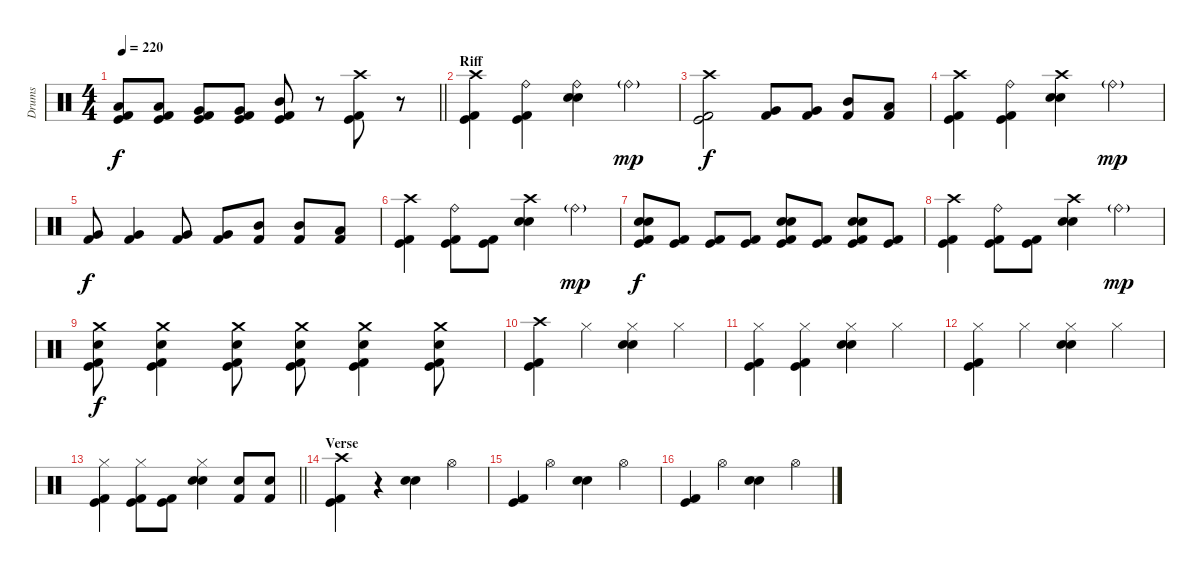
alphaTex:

\track ("Drums" "Drums") {instrument percussion}
\staff {score}
\articulation defaults
\ts (4 4)
\tempo 220
\clef neutral
\barLineRight lightlight
\ks c
("Low Tom (hit)" "Kick (hit)" "Kick (hit) 2").8{dy f} ("Low Tom (hit)" "Kick (hit)" "Kick (hit) 2").8 ("Very Low Tom (hit)" "Kick (hit)" "Kick (hit) 2").8 ("Very Low Tom (hit)" "Kick (hit)" "Kick (hit) 2").8 ("Mid Tom (hit)" "Kick (hit)" "Kick (hit) 2").8 r.8 ("Crash high (hit)" "Kick (hit)" "Kick (hit) 2").8 r.8 |
\section ("" "Riff")
("Crash high (hit)" "Kick (hit)" "Kick (hit) 2").4 ("Ride (bell)" "Kick (hit)" "Kick (hit) 2").4 ("Ride (bell)" "Electric Snare (hit)" "Snare (hit) 2").4 "Ride (bell)"{g}.4{dy mp} |
("Crash high (hit)" "Kick (hit)" "Kick (hit) 2").2{dy f} ("Very Low Tom (hit)" "Kick (hit) 2").8 ("Very Low Tom (hit)" "Kick (hit) 2").8 ("Mid Tom (hit)" "Kick (hit) 2").8 ("Low Tom (hit)" "Kick (hit) 2").8 |
("Crash high (hit)" "Kick (hit)" "Kick (hit) 2").4 ("Ride (bell)" "Kick (hit)" "Kick (hit) 2").4 ("Crash high (hit)" "Electric Snare (hit)" "Snare (hit) 2").4 "Ride (bell)"{g}.4{dy mp} |
("Very Low Tom (hit)" "Kick (hit) 2").8{dy f} ("Very Low Tom (hit)" "Kick (hit) 2").4 ("Very Low Tom (hit)" "Kick (hit) 2").8 ("Very Low Tom (hit)" "Kick (hit) 2").8 ("Mid Tom (hit)" "Kick (hit) 2").8 ("Mid Tom (hit)" "Kick (hit) 2").8 ("Low Tom (hit)" "Kick (hit) 2").8 |
("Crash high (hit)" "Kick (hit)" "Kick (hit) 2").4 ("Ride (bell)" "Kick (hit)" "Kick (hit) 2").8 ("Kick (hit)" "Kick (hit) 2").8 ("Crash high (hit)" "Electric Snare (hit)" "Snare (hit) 2").4 "Ride (bell)"{g}.4{dy mp} |
("Snare (hit) 2" "Electric Snare (hit)" "Kick (hit) 2" "Kick (hit)").8{dy f} ("Kick (hit) 2" "Kick (hit)").8 ("Kick (hit) 2" "Kick (hit)").8 ("Kick (hit) 2" "Kick (hit)").8 ("Snare (hit) 2" "Electric Snare (hit)" "Kick (hit) 2" "Kick (hit)").8 ("Kick (hit) 2" "Kick (hit)").8 ("Snare (hit) 2" "Electric Snare (hit)" "Kick (hit) 2" "Kick (hit)").8 ("Kick (hit) 2" "Kick (hit)").8 |
("Crash high (hit)" "Kick (hit)" "Kick (hit) 2").4 ("Ride (bell)" "Kick (hit)" "Kick (hit) 2").8 ("Kick (hit)" "Kick (hit) 2").8 ("Crash high (hit)" "Electric Snare (hit)" "Snare (hit) 2").4 "Ride (bell)"{g}.4{dy mp} |
("Crash medium (hit)" "Electric Snare (hit)" "Kick (hit) 2" "Kick (hit)").8{dy f} ("Crash medium (hit)" "Electric Snare (hit)" "Kick (hit) 2" "Kick (hit)").4 ("Crash medium (hit)" "Electric Snare (hit)" "Kick (hit) 2" "Kick (hit)").8 ("Crash medium (hit)" "Electric Snare (hit)" "Kick (hit) 2" "Kick (hit)").8 ("Crash medium (hit)" "Electric Snare (hit)" "Kick (hit) 2" "Kick (hit)").4 ("Crash medium (hit)" "Electric Snare (hit)" "Kick (hit) 2" "Kick (hit)").8 |
("Crash high (hit)" "Kick (hit) 2" "Kick (hit)").4 "Hi-Hat (closed)".4 ("Hi-Hat (closed)" "Electric Snare (hit)" "Snare (hit) 2").4 "Hi-Hat (closed)".4 |
("Hi-Hat (closed)" "Kick (hit) 2" "Kick (hit)").4 ("Hi-Hat (closed)" "Kick (hit) 2" "Kick (hit)").4 ("Hi-Hat (closed)" "Electric Snare (hit)" "Snare (hit) 2").4 "Hi-Hat (closed)".4 |
("Hi-Hat (closed)" "Kick (hit) 2" "Kick (hit)").4 "Hi-Hat (closed)".4 ("Hi-Hat (closed)" "Electric Snare (hit)" "Snare (hit) 2").4 "Hi-Hat (closed)".4 |
\barLineRight lightlight
("Hi-Hat (closed)" "Kick (hit) 2" "Kick (hit)").4 ("Hi-Hat (closed)" "Kick (hit) 2" "Kick (hit)").8 ("Kick (hit) 2" "Kick (hit)").8 ("Hi-Hat (closed)" "Electric Snare (hit)" "Snare (hit) 2").4 ("Electric Snare (hit)" "Kick (hit) 2").8 ("Electric Snare (hit)" "Kick (hit) 2").8 |
\section ("" "Verse")
("Crash high (hit)" "Kick (hit) 2" "Kick (hit)").4 r.4 ("Electric Snare (hit)" "Snare (hit) 2").4 "Hi-Hat (open)".4 |
("Kick (hit) 2" "Kick (hit)").4 "Hi-Hat (open)".4 ("Electric Snare (hit)" "Snare (hit) 2").4 "Hi-Hat (open)".4 |
("Kick (hit) 2" "Kick (hit)").4 "Hi-Hat (open)".4 ("Electric Snare (hit)" "Snare (hit) 2").4 "Hi-Hat (open)".4
